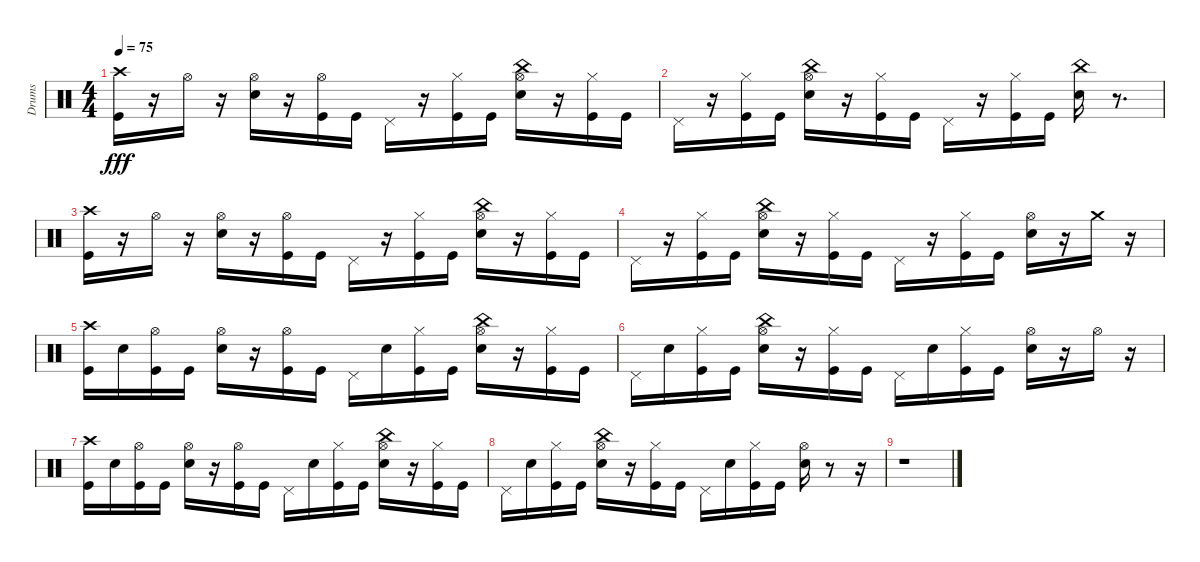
\track ("Drums" "Drums") {instrument percussion}
\staff {score}
\articulation defaults
\ts (4 4)
\tempo 75
\clef neutral
\ks c
("Kick (hit)" "Crash high (hit)").16{dy fff} r.16 "Hi-Hat (open)".16 r.16 ("Snare (hit) 2" "Hi-Hat (open)").16 r.16 ("Kick (hit)" "Hi-Hat (open)").16 "Kick (hit)".16 "Pedal Hi-Hat (hit)".16 r.16 ("Kick (hit)" "Hi-Hat (closed)").16 "Kick (hit)".16 ("China (hit)" "Hi-Hat (open)" "Snare (hit) 2").16 r.16 ("Kick (hit)" "Hi-Hat (closed)").16 "Kick (hit)".16 |
"Pedal Hi-Hat (hit)".16 r.16 ("Kick (hit)" "Hi-Hat (closed)").16 "Kick (hit)".16 ("Snare (hit) 2" "China (hit)" "Hi-Hat (open)").16 r.16 ("Kick (hit)" "Hi-Hat (closed)").16 "Kick (hit)".16 "Pedal Hi-Hat (hit)".16 r.16 ("Hi-Hat (closed)" "Kick (hit)").16 "Kick (hit)".16 ("China (hit)" "Snare (hit) 2").16 r.8{d} |
("Crash high (hit)" "Kick (hit)").16 r.16 "Hi-Hat (open)".16 r.16 ("Hi-Hat (open)" "Snare (hit) 2").16 r.16 ("Hi-Hat (open)" "Kick (hit)").16 "Kick (hit)".16 "Pedal Hi-Hat (hit)".16 r.16 ("Hi-Hat (closed)" "Kick (hit)").16 "Kick (hit)".16 ("Snare (hit) 2" "Hi-Hat (open)" "China (hit)").16 r.16 ("Hi-Hat (closed)" "Kick (hit)").16 "Kick (hit)".16 |
"Pedal Hi-Hat (hit)".16 r.16 ("Hi-Hat (closed)" "Kick (hit)").16 "Kick (hit)".16 ("Hi-Hat (open)" "China (hit)" "Snare (hit) 2").16 r.16 ("Hi-Hat (closed)" "Kick (hit)").16 "Kick (hit)".16 "Pedal Hi-Hat (hit)".16 r.16 ("Kick (hit)" "Hi-Hat (closed)").16 "Kick (hit)".16 ("Snare (hit) 2" "Hi-Hat (open)").16 r.16 "Crash medium (hit)".16 r.16 |
("Kick (hit)" "Crash high (hit)").16 "Snare (hit) 2".16 ("Kick (hit)" "Hi-Hat (open)").16 "Kick (hit)".16 ("Snare (hit) 2" "Hi-Hat (open)").16 r.16 ("Kick (hit)" "Hi-Hat (open)").16 "Kick (hit)".16 "Pedal Hi-Hat (hit)".16 "Snare (hit) 2".16 ("Kick (hit)" "Hi-Hat (closed)").16 "Kick (hit)".16 ("China (hit)" "Hi-Hat (open)" "Snare (hit) 2").16 r.16 ("Kick (hit)" "Hi-Hat (closed)").16 "Kick (hit)".16 |
"Pedal Hi-Hat (hit)".16 "Snare (hit) 2".16 ("Kick (hit)" "Hi-Hat (closed)").16 "Kick (hit)".16 ("Snare (hit) 2" "China (hit)" "Hi-Hat (open)").16 r.16 ("Kick (hit)" "Hi-Hat (closed)").16 "Kick (hit)".16 "Pedal Hi-Hat (hit)".16 "Snare (hit) 2".16 ("Hi-Hat (closed)" "Kick (hit)").16 "Kick (hit)".16 ("Hi-Hat (open)" "Snare (hit) 2").16 r.16 "Hi-Hat (open)".16 r.16 |
("Crash high (hit)" "Kick (hit)").16 "Snare (hit) 2".16 ("Kick (hit)" "Hi-Hat (open)").16 "Kick (hit)".16 ("Hi-Hat (open)" "Snare (hit) 2").16 r.16 ("Hi-Hat (open)" "Kick (hit)").16 "Kick (hit)".16 "Pedal Hi-Hat (hit)".16 "Snare (hit) 2".16 ("Hi-Hat (closed)" "Kick (hit)").16 "Kick (hit)".16 ("Snare (hit) 2" "Hi-Hat (open)" "China (hit)").16 r.16 ("Hi-Hat (closed)" "Kick (hit)").16 "Kick (hit)".16 |
"Pedal Hi-Hat (hit)".16 "Snare (hit) 2".16 ("Hi-Hat (closed)" "Kick (hit)").16 "Kick (hit)".16 ("Hi-Hat (open)" "China (hit)" "Snare (hit) 2").16 r.16 ("Hi-Hat (closed)" "Kick (hit)").16 "Kick (hit)".16 "Pedal Hi-Hat (hit)".16 "Snare (hit) 2".16 ("Kick (hit)" "Hi-Hat (closed)").16 "Kick (hit)".16 ("Snare (hit) 2" "Hi-Hat (open)").16 r.8 r.16 |
r.1
